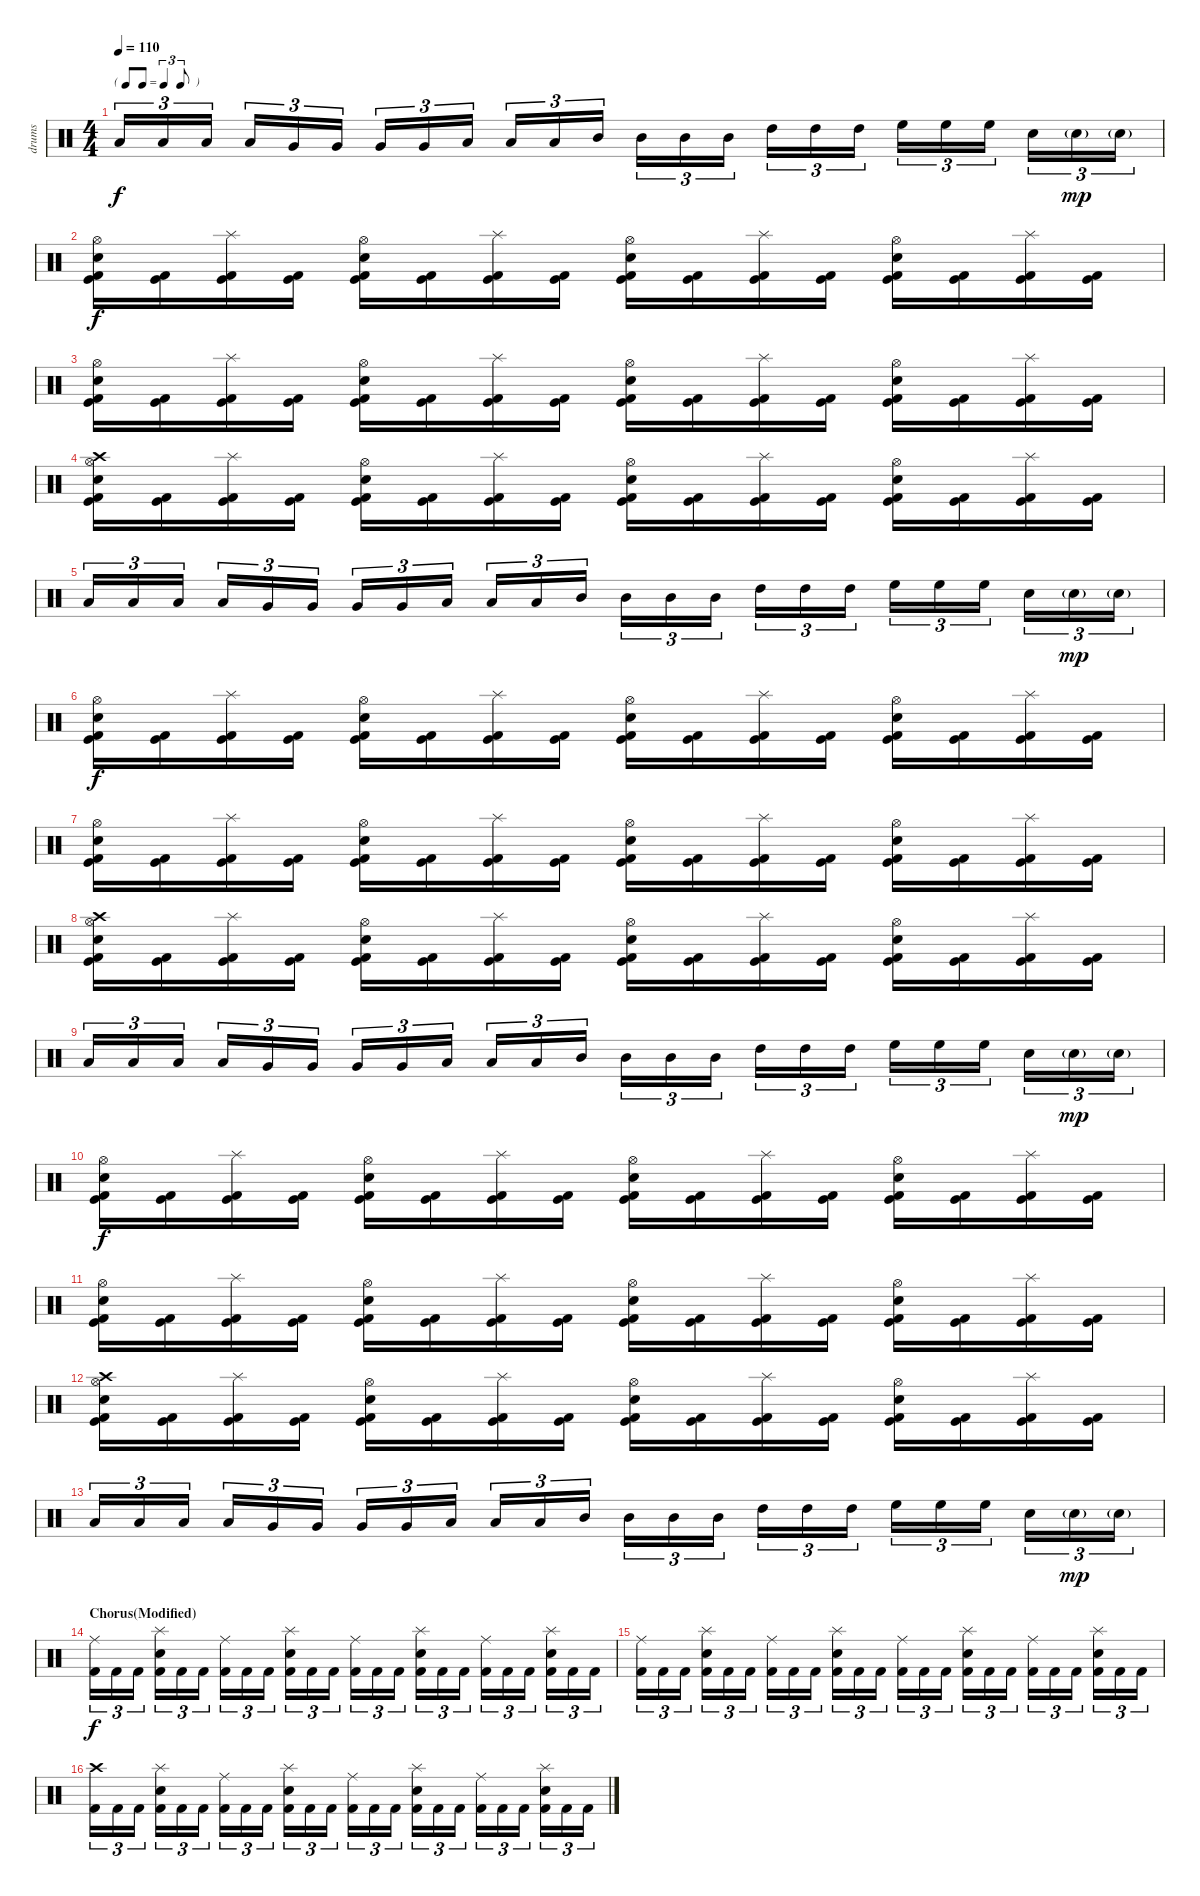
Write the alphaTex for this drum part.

\track ("drums" "drums") {instrument percussion}
\staff {score}
\articulation defaults
\ts (4 4)
\tf triplet8th
\tempo 110
\clef neutral
\ks c "Low Floor Tom (hit)".16{tu (3 2) dy f} "Low Floor Tom (hit)".16{tu (3 2)} "Low Floor Tom (hit)".16{tu (3 2)} "Low Floor Tom (hit)".16{tu (3 2)} "Very Low Tom (hit)".16{tu (3 2)} "Very Low Tom (hit)".16{tu (3 2)} "Very Low Tom (hit)".16{tu (3 2)} "Very Low Tom (hit)".16{tu (3 2)} "Low Tom (hit)".16{tu (3 2)} "Low Tom (hit)".16{tu (3 2)} "Low Tom (hit)".16{tu (3 2)} "Mid Tom (hit)".16{tu (3 2)} "Mid Tom (hit)".16{tu (3 2)} "Mid Tom (hit)".16{tu (3 2)} "Mid Tom (hit)".16{tu (3 2)} "High Tom (hit)".16{tu (3 2)} "High Tom (hit)".16{tu (3 2)} "High Tom (hit)".16{tu (3 2)} "High Floor Tom (hit)".16{tu (3 2)} "High Floor Tom (hit)".16{tu (3 2)} "High Floor Tom (hit)".16{tu (3 2)} "Electric Snare (hit)".16{tu (3 2)} "Snare (hit) 2"{g}.16{tu (3 2) dy mp} "Snare (hit) 2"{g}.16{tu (3 2)}
|
("Hi-Hat (open)" "Snare (hit) 2" "Kick (hit) 2" "Kick (hit)").16{dy f} ("Kick (hit) 2" "Kick (hit)").16 ("Splash (hit)" "Kick (hit) 2" "Kick (hit)").16 ("Kick (hit) 2" "Kick (hit)").16 ("Hi-Hat (open)" "Snare (hit) 2" "Kick (hit) 2" "Kick (hit)").16 ("Kick (hit) 2" "Kick (hit)").16 ("Splash (hit)" "Kick (hit) 2" "Kick (hit)").16 ("Kick (hit) 2" "Kick (hit)").16 ("Hi-Hat (open)" "Snare (hit) 2" "Kick (hit) 2" "Kick (hit)").16 ("Kick (hit) 2" "Kick (hit)").16 ("Splash (hit)" "Kick (hit) 2" "Kick (hit)").16 ("Kick (hit) 2" "Kick (hit)").16 ("Hi-Hat (open)" "Snare (hit) 2" "Kick (hit) 2" "Kick (hit)").16 ("Kick (hit) 2" "Kick (hit)").16 ("Splash (hit)" "Kick (hit) 2" "Kick (hit)").16 ("Kick (hit) 2" "Kick (hit)").16 |
("Hi-Hat (open)" "Snare (hit) 2" "Kick (hit) 2" "Kick (hit)").16 ("Kick (hit) 2" "Kick (hit)").16 ("Splash (hit)" "Kick (hit) 2" "Kick (hit)").16 ("Kick (hit) 2" "Kick (hit)").16 ("Hi-Hat (open)" "Snare (hit) 2" "Kick (hit) 2" "Kick (hit)").16 ("Kick (hit) 2" "Kick (hit)").16 ("Splash (hit)" "Kick (hit) 2" "Kick (hit)").16 ("Kick (hit) 2" "Kick (hit)").16 ("Hi-Hat (open)" "Snare (hit) 2" "Kick (hit) 2" "Kick (hit)").16 ("Kick (hit) 2" "Kick (hit)").16 ("Splash (hit)" "Kick (hit) 2" "Kick (hit)").16 ("Kick (hit) 2" "Kick (hit)").16 ("Hi-Hat (open)" "Snare (hit) 2" "Kick (hit) 2" "Kick (hit)").16 ("Kick (hit) 2" "Kick (hit)").16 ("Splash (hit)" "Kick (hit) 2" "Kick (hit)").16 ("Kick (hit) 2" "Kick (hit)").16 |
("Crash high (hit)" "Hi-Hat (open)" "Snare (hit) 2" "Kick (hit) 2" "Kick (hit)").16 ("Kick (hit) 2" "Kick (hit)").16 ("Splash (hit)" "Kick (hit) 2" "Kick (hit)").16 ("Kick (hit) 2" "Kick (hit)").16 ("Hi-Hat (open)" "Snare (hit) 2" "Kick (hit) 2" "Kick (hit)").16 ("Kick (hit) 2" "Kick (hit)").16 ("Splash (hit)" "Kick (hit) 2" "Kick (hit)").16 ("Kick (hit) 2" "Kick (hit)").16 ("Hi-Hat (open)" "Snare (hit) 2" "Kick (hit) 2" "Kick (hit)").16 ("Kick (hit) 2" "Kick (hit)").16 ("Splash (hit)" "Kick (hit) 2" "Kick (hit)").16 ("Kick (hit) 2" "Kick (hit)").16 ("Hi-Hat (open)" "Snare (hit) 2" "Kick (hit) 2" "Kick (hit)").16 ("Kick (hit) 2" "Kick (hit)").16 ("Splash (hit)" "Kick (hit) 2" "Kick (hit)").16 ("Kick (hit) 2" "Kick (hit)").16 |
"Low Floor Tom (hit)".16{tu (3 2)} "Low Floor Tom (hit)".16{tu (3 2)} "Low Floor Tom (hit)".16{tu (3 2)} "Low Floor Tom (hit)".16{tu (3 2)} "Very Low Tom (hit)".16{tu (3 2)} "Very Low Tom (hit)".16{tu (3 2)} "Very Low Tom (hit)".16{tu (3 2)} "Very Low Tom (hit)".16{tu (3 2)} "Low Tom (hit)".16{tu (3 2)} "Low Tom (hit)".16{tu (3 2)} "Low Tom (hit)".16{tu (3 2)} "Mid Tom (hit)".16{tu (3 2)} "Mid Tom (hit)".16{tu (3 2)} "Mid Tom (hit)".16{tu (3 2)} "Mid Tom (hit)".16{tu (3 2)} "High Tom (hit)".16{tu (3 2)} "High Tom (hit)".16{tu (3 2)} "High Tom (hit)".16{tu (3 2)} "High Floor Tom (hit)".16{tu (3 2)} "High Floor Tom (hit)".16{tu (3 2)} "High Floor Tom (hit)".16{tu (3 2)} "Electric Snare (hit)".16{tu (3 2)} "Snare (hit) 2"{g}.16{tu (3 2) dy mp} "Snare (hit) 2"{g}.16{tu (3 2)} |
("Hi-Hat (open)" "Snare (hit) 2" "Kick (hit) 2" "Kick (hit)").16{dy f} ("Kick (hit) 2" "Kick (hit)").16 ("Splash (hit)" "Kick (hit) 2" "Kick (hit)").16 ("Kick (hit) 2" "Kick (hit)").16 ("Hi-Hat (open)" "Snare (hit) 2" "Kick (hit) 2" "Kick (hit)").16 ("Kick (hit) 2" "Kick (hit)").16 ("Splash (hit)" "Kick (hit) 2" "Kick (hit)").16 ("Kick (hit) 2" "Kick (hit)").16 ("Hi-Hat (open)" "Snare (hit) 2" "Kick (hit) 2" "Kick (hit)").16 ("Kick (hit) 2" "Kick (hit)").16 ("Splash (hit)" "Kick (hit) 2" "Kick (hit)").16 ("Kick (hit) 2" "Kick (hit)").16 ("Hi-Hat (open)" "Snare (hit) 2" "Kick (hit) 2" "Kick (hit)").16 ("Kick (hit) 2" "Kick (hit)").16 ("Splash (hit)" "Kick (hit) 2" "Kick (hit)").16 ("Kick (hit) 2" "Kick (hit)").16 |
("Hi-Hat (open)" "Snare (hit) 2" "Kick (hit) 2" "Kick (hit)").16 ("Kick (hit) 2" "Kick (hit)").16 ("Splash (hit)" "Kick (hit) 2" "Kick (hit)").16 ("Kick (hit) 2" "Kick (hit)").16 ("Hi-Hat (open)" "Snare (hit) 2" "Kick (hit) 2" "Kick (hit)").16 ("Kick (hit) 2" "Kick (hit)").16 ("Splash (hit)" "Kick (hit) 2" "Kick (hit)").16 ("Kick (hit) 2" "Kick (hit)").16 ("Hi-Hat (open)" "Snare (hit) 2" "Kick (hit) 2" "Kick (hit)").16 ("Kick (hit) 2" "Kick (hit)").16 ("Splash (hit)" "Kick (hit) 2" "Kick (hit)").16 ("Kick (hit) 2" "Kick (hit)").16 ("Hi-Hat (open)" "Snare (hit) 2" "Kick (hit) 2" "Kick (hit)").16 ("Kick (hit) 2" "Kick (hit)").16 ("Splash (hit)" "Kick (hit) 2" "Kick (hit)").16 ("Kick (hit) 2" "Kick (hit)").16 |
("Crash high (hit)" "Hi-Hat (open)" "Snare (hit) 2" "Kick (hit) 2" "Kick (hit)").16 ("Kick (hit) 2" "Kick (hit)").16 ("Splash (hit)" "Kick (hit) 2" "Kick (hit)").16 ("Kick (hit) 2" "Kick (hit)").16 ("Hi-Hat (open)" "Snare (hit) 2" "Kick (hit) 2" "Kick (hit)").16 ("Kick (hit) 2" "Kick (hit)").16 ("Splash (hit)" "Kick (hit) 2" "Kick (hit)").16 ("Kick (hit) 2" "Kick (hit)").16 ("Hi-Hat (open)" "Snare (hit) 2" "Kick (hit) 2" "Kick (hit)").16 ("Kick (hit) 2" "Kick (hit)").16 ("Splash (hit)" "Kick (hit) 2" "Kick (hit)").16 ("Kick (hit) 2" "Kick (hit)").16 ("Hi-Hat (open)" "Snare (hit) 2" "Kick (hit) 2" "Kick (hit)").16 ("Kick (hit) 2" "Kick (hit)").16 ("Splash (hit)" "Kick (hit) 2" "Kick (hit)").16 ("Kick (hit) 2" "Kick (hit)").16 |
"Low Floor Tom (hit)".16{tu (3 2)} "Low Floor Tom (hit)".16{tu (3 2)} "Low Floor Tom (hit)".16{tu (3 2)} "Low Floor Tom (hit)".16{tu (3 2)} "Very Low Tom (hit)".16{tu (3 2)} "Very Low Tom (hit)".16{tu (3 2)} "Very Low Tom (hit)".16{tu (3 2)} "Very Low Tom (hit)".16{tu (3 2)} "Low Tom (hit)".16{tu (3 2)} "Low Tom (hit)".16{tu (3 2)} "Low Tom (hit)".16{tu (3 2)} "Mid Tom (hit)".16{tu (3 2)} "Mid Tom (hit)".16{tu (3 2)} "Mid Tom (hit)".16{tu (3 2)} "Mid Tom (hit)".16{tu (3 2)} "High Tom (hit)".16{tu (3 2)} "High Tom (hit)".16{tu (3 2)} "High Tom (hit)".16{tu (3 2)} "High Floor Tom (hit)".16{tu (3 2)} "High Floor Tom (hit)".16{tu (3 2)} "High Floor Tom (hit)".16{tu (3 2)} "Electric Snare (hit)".16{tu (3 2)} "Snare (hit) 2"{g}.16{tu (3 2) dy mp} "Snare (hit) 2"{g}.16{tu (3 2)} |
("Hi-Hat (open)" "Snare (hit) 2" "Kick (hit) 2" "Kick (hit)").16{dy f} ("Kick (hit) 2" "Kick (hit)").16 ("Splash (hit)" "Kick (hit) 2" "Kick (hit)").16 ("Kick (hit) 2" "Kick (hit)").16 ("Hi-Hat (open)" "Snare (hit) 2" "Kick (hit) 2" "Kick (hit)").16 ("Kick (hit) 2" "Kick (hit)").16 ("Splash (hit)" "Kick (hit) 2" "Kick (hit)").16 ("Kick (hit) 2" "Kick (hit)").16 ("Hi-Hat (open)" "Snare (hit) 2" "Kick (hit) 2" "Kick (hit)").16 ("Kick (hit) 2" "Kick (hit)").16 ("Splash (hit)" "Kick (hit) 2" "Kick (hit)").16 ("Kick (hit) 2" "Kick (hit)").16 ("Hi-Hat (open)" "Snare (hit) 2" "Kick (hit) 2" "Kick (hit)").16 ("Kick (hit) 2" "Kick (hit)").16 ("Splash (hit)" "Kick (hit) 2" "Kick (hit)").16 ("Kick (hit) 2" "Kick (hit)").16 |
("Hi-Hat (open)" "Snare (hit) 2" "Kick (hit) 2" "Kick (hit)").16 ("Kick (hit) 2" "Kick (hit)").16 ("Splash (hit)" "Kick (hit) 2" "Kick (hit)").16 ("Kick (hit) 2" "Kick (hit)").16 ("Hi-Hat (open)" "Snare (hit) 2" "Kick (hit) 2" "Kick (hit)").16 ("Kick (hit) 2" "Kick (hit)").16 ("Splash (hit)" "Kick (hit) 2" "Kick (hit)").16 ("Kick (hit) 2" "Kick (hit)").16 ("Hi-Hat (open)" "Snare (hit) 2" "Kick (hit) 2" "Kick (hit)").16 ("Kick (hit) 2" "Kick (hit)").16 ("Splash (hit)" "Kick (hit) 2" "Kick (hit)").16 ("Kick (hit) 2" "Kick (hit)").16 ("Hi-Hat (open)" "Snare (hit) 2" "Kick (hit) 2" "Kick (hit)").16 ("Kick (hit) 2" "Kick (hit)").16 ("Splash (hit)" "Kick (hit) 2" "Kick (hit)").16 ("Kick (hit) 2" "Kick (hit)").16 |
("Crash high (hit)" "Hi-Hat (open)" "Snare (hit) 2" "Kick (hit) 2" "Kick (hit)").16 ("Kick (hit) 2" "Kick (hit)").16 ("Splash (hit)" "Kick (hit) 2" "Kick (hit)").16 ("Kick (hit) 2" "Kick (hit)").16 ("Hi-Hat (open)" "Snare (hit) 2" "Kick (hit) 2" "Kick (hit)").16 ("Kick (hit) 2" "Kick (hit)").16 ("Splash (hit)" "Kick (hit) 2" "Kick (hit)").16 ("Kick (hit) 2" "Kick (hit)").16 ("Hi-Hat (open)" "Snare (hit) 2" "Kick (hit) 2" "Kick (hit)").16 ("Kick (hit) 2" "Kick (hit)").16 ("Splash (hit)" "Kick (hit) 2" "Kick (hit)").16 ("Kick (hit) 2" "Kick (hit)").16 ("Hi-Hat (open)" "Snare (hit) 2" "Kick (hit) 2" "Kick (hit)").16 ("Kick (hit) 2" "Kick (hit)").16 ("Splash (hit)" "Kick (hit) 2" "Kick (hit)").16 ("Kick (hit) 2" "Kick (hit)").16 |
"Low Floor Tom (hit)".16{tu (3 2)} "Low Floor Tom (hit)".16{tu (3 2)} "Low Floor Tom (hit)".16{tu (3 2)} "Low Floor Tom (hit)".16{tu (3 2)} "Very Low Tom (hit)".16{tu (3 2)} "Very Low Tom (hit)".16{tu (3 2)} "Very Low Tom (hit)".16{tu (3 2)} "Very Low Tom (hit)".16{tu (3 2)} "Low Tom (hit)".16{tu (3 2)} "Low Tom (hit)".16{tu (3 2)} "Low Tom (hit)".16{tu (3 2)} "Mid Tom (hit)".16{tu (3 2)} "Mid Tom (hit)".16{tu (3 2)} "Mid Tom (hit)".16{tu (3 2)} "Mid Tom (hit)".16{tu (3 2)} "High Tom (hit)".16{tu (3 2)} "High Tom (hit)".16{tu (3 2)} "High Tom (hit)".16{tu (3 2)} "High Floor Tom (hit)".16{tu (3 2)} "High Floor Tom (hit)".16{tu (3 2)} "High Floor Tom (hit)".16{tu (3 2)} "Electric Snare (hit)".16{tu (3 2)} "Snare (hit) 2"{g}.16{tu (3 2) dy mp} "Snare (hit) 2"{g}.16{tu (3 2)} |
\section ("" "Chorus(Modified)")
("Ride (middle)" "Kick (hit) 2").16{tu (3 2) dy f} "Kick (hit) 2".16{tu (3 2)} "Kick (hit) 2".16{tu (3 2)} ("Splash (hit)" "Snare (hit) 2" "Kick (hit) 2").16{tu (3 2)} "Kick (hit) 2".16{tu (3 2)} "Kick (hit) 2".16{tu (3 2)} ("Ride (middle)" "Kick (hit) 2").16{tu (3 2)} "Kick (hit) 2".16{tu (3 2)} "Kick (hit) 2".16{tu (3 2)} ("Splash (hit)" "Snare (hit) 2" "Kick (hit) 2").16{tu (3 2)} "Kick (hit) 2".16{tu (3 2)} "Kick (hit) 2".16{tu (3 2)} ("Ride (middle)" "Kick (hit) 2").16{tu (3 2)} "Kick (hit) 2".16{tu (3 2)} "Kick (hit) 2".16{tu (3 2)} ("Splash (hit)" "Snare (hit) 2" "Kick (hit) 2").16{tu (3 2)} "Kick (hit) 2".16{tu (3 2)} "Kick (hit) 2".16{tu (3 2)} ("Ride (middle)" "Kick (hit) 2").16{tu (3 2)} "Kick (hit) 2".16{tu (3 2)} "Kick (hit) 2".16{tu (3 2)} ("Splash (hit)" "Snare (hit) 2" "Kick (hit) 2").16{tu (3 2)} "Kick (hit) 2".16{tu (3 2)} "Kick (hit) 2".16{tu (3 2)} |
("Ride (middle)" "Kick (hit) 2").16{tu (3 2)} "Kick (hit) 2".16{tu (3 2)} "Kick (hit) 2".16{tu (3 2)} ("Splash (hit)" "Snare (hit) 2" "Kick (hit) 2").16{tu (3 2)} "Kick (hit) 2".16{tu (3 2)} "Kick (hit) 2".16{tu (3 2)} ("Ride (middle)" "Kick (hit) 2").16{tu (3 2)} "Kick (hit) 2".16{tu (3 2)} "Kick (hit) 2".16{tu (3 2)} ("Splash (hit)" "Snare (hit) 2" "Kick (hit) 2").16{tu (3 2)} "Kick (hit) 2".16{tu (3 2)} "Kick (hit) 2".16{tu (3 2)} ("Ride (middle)" "Kick (hit) 2").16{tu (3 2)} "Kick (hit) 2".16{tu (3 2)} "Kick (hit) 2".16{tu (3 2)} ("Splash (hit)" "Snare (hit) 2" "Kick (hit) 2").16{tu (3 2)} "Kick (hit) 2".16{tu (3 2)} "Kick (hit) 2".16{tu (3 2)} ("Ride (middle)" "Kick (hit) 2").16{tu (3 2)} "Kick (hit) 2".16{tu (3 2)} "Kick (hit) 2".16{tu (3 2)} ("Splash (hit)" "Snare (hit) 2" "Kick (hit) 2").16{tu (3 2)} "Kick (hit) 2".16{tu (3 2)} "Kick (hit) 2".16{tu (3 2)} |
("Crash high (hit)" "Kick (hit) 2").16{tu (3 2)} "Kick (hit) 2".16{tu (3 2)} "Kick (hit) 2".16{tu (3 2)} ("Splash (hit)" "Snare (hit) 2" "Kick (hit) 2").16{tu (3 2)} "Kick (hit) 2".16{tu (3 2)} "Kick (hit) 2".16{tu (3 2)} ("Ride (middle)" "Kick (hit) 2").16{tu (3 2)} "Kick (hit) 2".16{tu (3 2)} "Kick (hit) 2".16{tu (3 2)} ("Splash (hit)" "Snare (hit) 2" "Kick (hit) 2").16{tu (3 2)} "Kick (hit) 2".16{tu (3 2)} "Kick (hit) 2".16{tu (3 2)} ("Ride (middle)" "Kick (hit) 2").16{tu (3 2)} "Kick (hit) 2".16{tu (3 2)} "Kick (hit) 2".16{tu (3 2)} ("Splash (hit)" "Snare (hit) 2" "Kick (hit) 2").16{tu (3 2)} "Kick (hit) 2".16{tu (3 2)} "Kick (hit) 2".16{tu (3 2)} ("Ride (middle)" "Kick (hit) 2").16{tu (3 2)} "Kick (hit) 2".16{tu (3 2)} "Kick (hit) 2".16{tu (3 2)} ("Splash (hit)" "Snare (hit) 2" "Kick (hit) 2").16{tu (3 2)} "Kick (hit) 2".16{tu (3 2)} "Kick (hit) 2".16{tu (3 2)}
